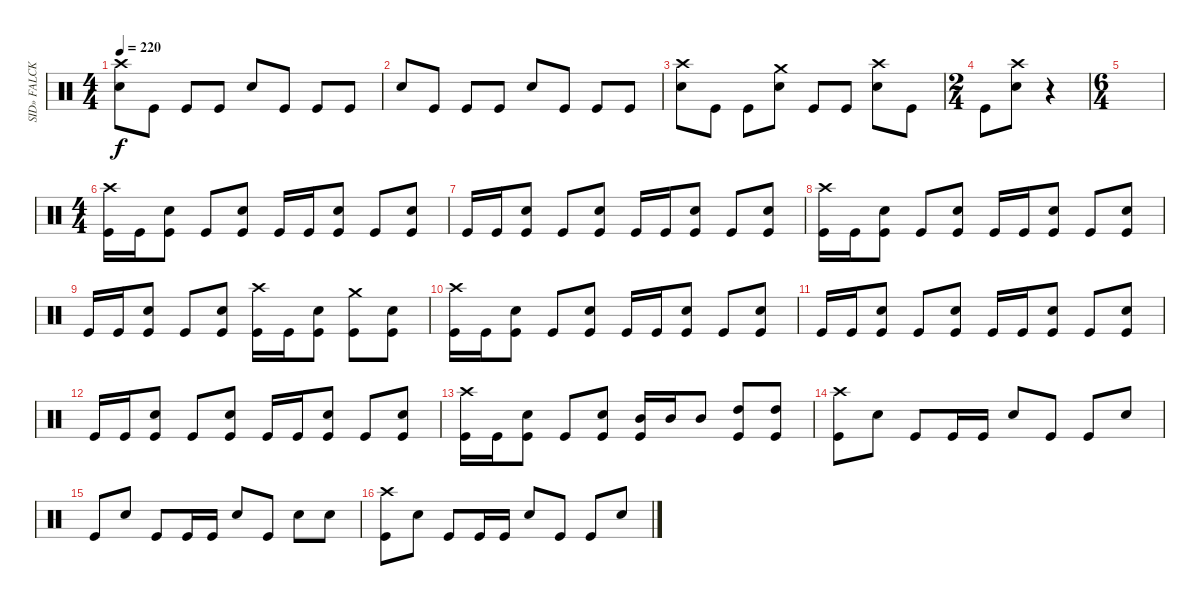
\track ("SID» FALCK- Drums " "SID» FALCK") {instrument percussion}
\staff {score}
\articulation defaults
\ts (4 4)
\tempo 220
\clef neutral
\ks c
("Crash high (hit)" "Electric Snare (hit)").8{dy f} "Kick (hit)".8 "Kick (hit)".8 "Kick (hit)".8 "Electric Snare (hit)".8 "Kick (hit)".8 "Kick (hit)".8 "Kick (hit)".8 |
"Electric Snare (hit)".8 "Kick (hit)".8 "Kick (hit)".8 "Kick (hit)".8 "Electric Snare (hit)".8 "Kick (hit)".8 "Kick (hit)".8 "Kick (hit)".8 |
("Crash high (hit)" "Electric Snare (hit)").8 "Kick (hit)".8 "Kick (hit)".8 ("Crash medium (hit)" "Electric Snare (hit)").8 "Kick (hit)".8 "Kick (hit)".8 ("Crash high (hit)" "Electric Snare (hit)").8 "Kick (hit)".8 |
\ts (2 4)
"Kick (hit)".8 ("Crash high (hit)" "Electric Snare (hit)").8 r.4 |
\ts (6 4)
|
\ts (4 4)
("Crash high (hit)" "Kick (hit)").16 "Kick (hit)".16 ("Electric Snare (hit)" "Kick (hit)").8 "Kick (hit)".8 ("Electric Snare (hit)" "Kick (hit)").8 "Kick (hit)".16 "Kick (hit)".16 ("Electric Snare (hit)" "Kick (hit)").8 "Kick (hit)".8 ("Electric Snare (hit)" "Kick (hit)").8 |
"Kick (hit)".16 "Kick (hit)".16 ("Electric Snare (hit)" "Kick (hit)").8 "Kick (hit)".8 ("Electric Snare (hit)" "Kick (hit)").8 "Kick (hit)".16 "Kick (hit)".16 ("Electric Snare (hit)" "Kick (hit)").8 "Kick (hit)".8 ("Electric Snare (hit)" "Kick (hit)").8 |
("Crash high (hit)" "Kick (hit)").16 "Kick (hit)".16 ("Electric Snare (hit)" "Kick (hit)").8 "Kick (hit)".8 ("Electric Snare (hit)" "Kick (hit)").8 "Kick (hit)".16 "Kick (hit)".16 ("Electric Snare (hit)" "Kick (hit)").8 "Kick (hit)".8 ("Electric Snare (hit)" "Kick (hit)").8 |
"Kick (hit)".16 "Kick (hit)".16 ("Electric Snare (hit)" "Kick (hit)").8 "Kick (hit)".8 ("Electric Snare (hit)" "Kick (hit)").8 ("Crash high (hit)" "Kick (hit)").16 "Kick (hit)".16 ("Electric Snare (hit)" "Kick (hit)").8 ("Crash medium (hit)" "Kick (hit)").8 ("Electric Snare (hit)" "Kick (hit)").8 |
("Crash high (hit)" "Kick (hit)").16 "Kick (hit)".16 ("Electric Snare (hit)" "Kick (hit)").8 "Kick (hit)".8 ("Electric Snare (hit)" "Kick (hit)").8 "Kick (hit)".16 "Kick (hit)".16 ("Electric Snare (hit)" "Kick (hit)").8 "Kick (hit)".8 ("Electric Snare (hit)" "Kick (hit)").8 |
"Kick (hit)".16 "Kick (hit)".16 ("Electric Snare (hit)" "Kick (hit)").8 "Kick (hit)".8 ("Electric Snare (hit)" "Kick (hit)").8 "Kick (hit)".16 "Kick (hit)".16 ("Electric Snare (hit)" "Kick (hit)").8 "Kick (hit)".8 ("Electric Snare (hit)" "Kick (hit)").8 |
"Kick (hit)".16 "Kick (hit)".16 ("Electric Snare (hit)" "Kick (hit)").8 "Kick (hit)".8 ("Electric Snare (hit)" "Kick (hit)").8 "Kick (hit)".16 "Kick (hit)".16 ("Electric Snare (hit)" "Kick (hit)").8 "Kick (hit)".8 ("Electric Snare (hit)" "Kick (hit)").8 |
("Crash high (hit)" "Kick (hit)").16 "Kick (hit)".16 ("Electric Snare (hit)" "Kick (hit)").8 "Kick (hit)".8 ("Electric Snare (hit)" "Kick (hit)").8 ("Mid Tom (hit)" "Kick (hit)").16 "Mid Tom (hit)".16 "Mid Tom (hit)".8 ("High Tom (hit)" "Kick (hit)").8 ("High Tom (hit)" "Kick (hit)").8 |
("Crash high (hit)" "Kick (hit)").8 "Electric Snare (hit)".8 "Kick (hit)".8 "Kick (hit)".16 "Kick (hit)".16 "Electric Snare (hit)".8 "Kick (hit)".8 "Kick (hit)".8 "Electric Snare (hit)".8 |
"Kick (hit)".8 "Electric Snare (hit)".8 "Kick (hit)".8 "Kick (hit)".16 "Kick (hit)".16 "Electric Snare (hit)".8 "Kick (hit)".8 "Electric Snare (hit)".8 "Electric Snare (hit)".8 |
("Crash high (hit)" "Kick (hit)").8 "Electric Snare (hit)".8 "Kick (hit)".8 "Kick (hit)".16 "Kick (hit)".16 "Electric Snare (hit)".8 "Kick (hit)".8 "Kick (hit)".8 "Electric Snare (hit)".8
